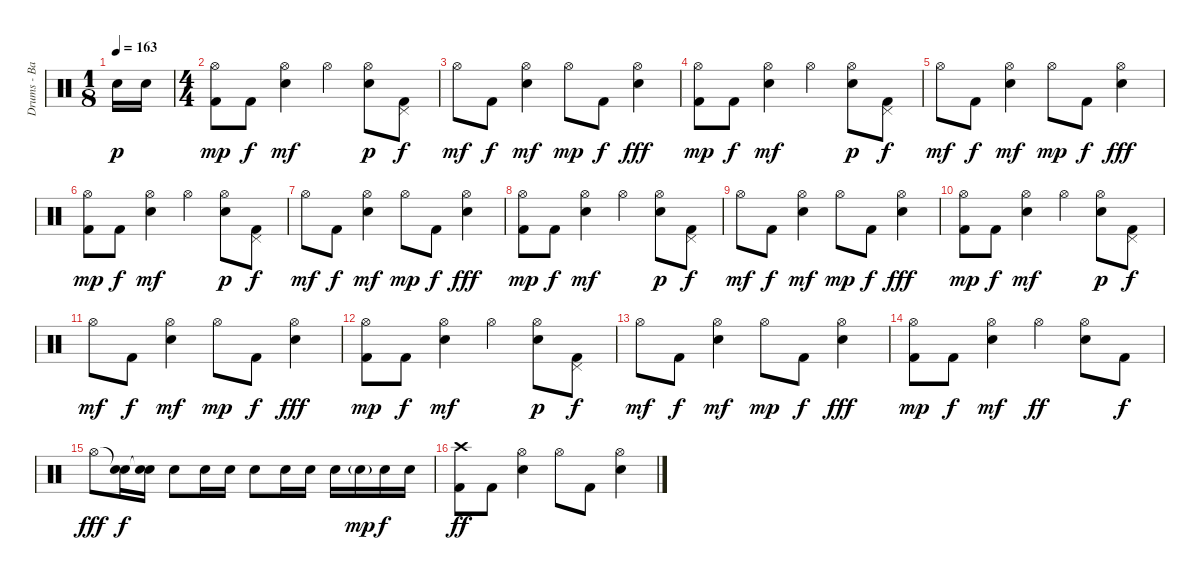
\track ("Drums - Bateria" "Drums - Ba") {instrument percussion}
\staff {score}
\articulation defaults
\ts (1 8)
\tempo 163
\clef neutral
\ks c "Electric Snare (hit)".16{dy p} "Electric Snare (hit)".16
|
\ts (4 4)
("Hi-Hat (open)" "Kick (hit) 2").8{dy mp} "Kick (hit) 2".8{dy f} ("Hi-Hat (open)" "Electric Snare (hit)").4{dy mf} "Hi-Hat (open)".4 ("Hi-Hat (open)" "Electric Snare (hit)").8{dy p} ("Pedal Hi-Hat (hit)" "Kick (hit) 2").8{dy f} |
"Hi-Hat (open)".8{dy mf} "Kick (hit) 2".8{dy f} ("Hi-Hat (open)" "Electric Snare (hit)").4{dy mf} "Hi-Hat (open)".8{dy mp} "Kick (hit) 2".8{dy f} ("Hi-Hat (open)" "Electric Snare (hit)").4{dy fff} |
("Hi-Hat (open)" "Kick (hit) 2").8{dy mp} "Kick (hit) 2".8{dy f} ("Hi-Hat (open)" "Electric Snare (hit)").4{dy mf} "Hi-Hat (open)".4 ("Hi-Hat (open)" "Electric Snare (hit)").8{dy p} ("Pedal Hi-Hat (hit)" "Kick (hit) 2").8{dy f} |
"Hi-Hat (open)".8{dy mf} "Kick (hit) 2".8{dy f} ("Hi-Hat (open)" "Electric Snare (hit)").4{dy mf} "Hi-Hat (open)".8{dy mp} "Kick (hit) 2".8{dy f} ("Hi-Hat (open)" "Electric Snare (hit)").4{dy fff} |
("Hi-Hat (open)" "Kick (hit) 2").8{dy mp} "Kick (hit) 2".8{dy f} ("Hi-Hat (open)" "Electric Snare (hit)").4{dy mf} "Hi-Hat (open)".4 ("Hi-Hat (open)" "Electric Snare (hit)").8{dy p} ("Pedal Hi-Hat (hit)" "Kick (hit) 2").8{dy f} |
"Hi-Hat (open)".8{dy mf} "Kick (hit) 2".8{dy f} ("Hi-Hat (open)" "Electric Snare (hit)").4{dy mf} "Hi-Hat (open)".8{dy mp} "Kick (hit) 2".8{dy f} ("Hi-Hat (open)" "Electric Snare (hit)").4{dy fff} |
("Hi-Hat (open)" "Kick (hit) 2").8{dy mp} "Kick (hit) 2".8{dy f} ("Hi-Hat (open)" "Electric Snare (hit)").4{dy mf} "Hi-Hat (open)".4 ("Hi-Hat (open)" "Electric Snare (hit)").8{dy p} ("Pedal Hi-Hat (hit)" "Kick (hit) 2").8{dy f} |
"Hi-Hat (open)".8{dy mf} "Kick (hit) 2".8{dy f} ("Hi-Hat (open)" "Electric Snare (hit)").4{dy mf} "Hi-Hat (open)".8{dy mp} "Kick (hit) 2".8{dy f} ("Hi-Hat (open)" "Electric Snare (hit)").4{dy fff} |
("Hi-Hat (open)" "Kick (hit) 2").8{dy mp} "Kick (hit) 2".8{dy f} ("Hi-Hat (open)" "Electric Snare (hit)").4{dy mf} "Hi-Hat (open)".4 ("Hi-Hat (open)" "Electric Snare (hit)").8{dy p} ("Pedal Hi-Hat (hit)" "Kick (hit) 2").8{dy f} |
"Hi-Hat (open)".8{dy mf} "Kick (hit) 2".8{dy f} ("Hi-Hat (open)" "Electric Snare (hit)").4{dy mf} "Hi-Hat (open)".8{dy mp} "Kick (hit) 2".8{dy f} ("Hi-Hat (open)" "Electric Snare (hit)").4{dy fff} |
("Hi-Hat (open)" "Kick (hit) 2").8{dy mp} "Kick (hit) 2".8{dy f} ("Hi-Hat (open)" "Electric Snare (hit)").4{dy mf} "Hi-Hat (open)".4 ("Hi-Hat (open)" "Electric Snare (hit)").8{dy p} ("Pedal Hi-Hat (hit)" "Kick (hit) 2").8{dy f} |
"Hi-Hat (open)".8{dy mf} "Kick (hit) 2".8{dy f} ("Hi-Hat (open)" "Electric Snare (hit)").4{dy mf} "Hi-Hat (open)".8{dy mp} "Kick (hit) 2".8{dy f} ("Hi-Hat (open)" "Electric Snare (hit)").4{dy fff} |
("Hi-Hat (open)" "Kick (hit) 2").8{dy mp} "Kick (hit) 2".8{dy f} ("Hi-Hat (open)" "Electric Snare (hit)").4{dy mf} "Hi-Hat (open)".4{dy ff} ("Hi-Hat (open)" "Electric Snare (hit)").8 "Kick (hit) 2".8{dy f} |
"Hi-Hat (open)".8{dy fff} ("Snare (hit)"{t} "Electric Snare (hit)").16{dy f} ("Snare (hit)"{t} "Electric Snare (hit)").16 "Electric Snare (hit)".8 "Electric Snare (hit)".16 "Electric Snare (hit)".16 "Electric Snare (hit)".8 "Electric Snare (hit)".16 "Electric Snare (hit)".16 "Electric Snare (hit)".16 "Electric Snare (hit)"{g}.16{dy mp} "Electric Snare (hit)".16{dy f} "Electric Snare (hit)".16 |
("Crash high (hit)" "Kick (hit) 2").8{dy ff} "Kick (hit) 2".8 ("Hi-Hat (open)" "Electric Snare (hit)").4 "Hi-Hat (open)".8 "Kick (hit) 2".8 ("Hi-Hat (open)" "Electric Snare (hit)").4
